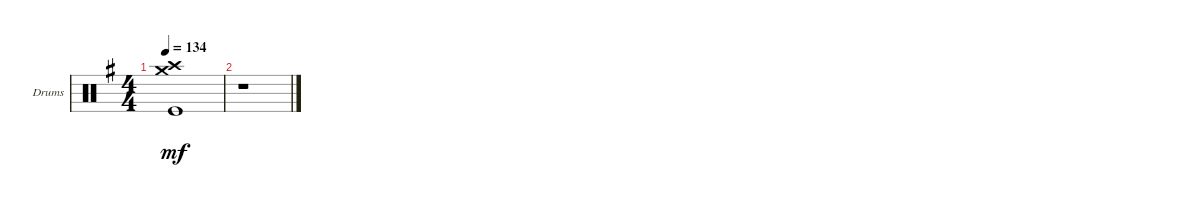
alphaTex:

\bracketExtendMode groupsimilarinstruments
\firstSystemTrackNameOrientation horizontal
\otherSystemsTrackNameOrientation horizontal
\track ("drums (Anton Zulganov)" "Drums") {instrument percussion}
\staff {score}
\articulation defaults
\ts (4 4)
\tempo 134
\clef neutral
\ks eminor
("Crash medium (hit)" "Kick (hit)" "Crash high (hit)").1{dy mf} |
r.1
